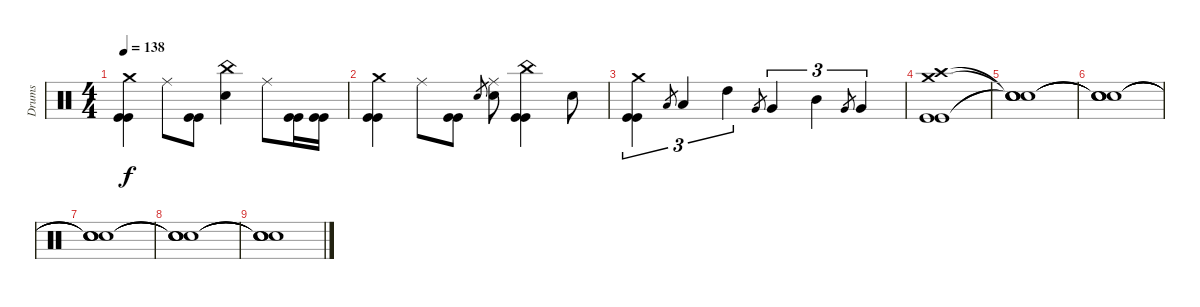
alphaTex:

\track ("Drums" "Drums") {instrument percussion}
\staff {score}
\articulation defaults
\ts (4 4)
\tempo 138
\clef neutral
\ks c
("Crash medium (hit)" "Kick (hit)" "Kick (hit)").4{dy f} "Ride (middle)".8 ("Kick (hit)" "Kick (hit)").8 ("China (hit)" "Electric Snare (hit)").4 "Ride (middle)".8 ("Kick (hit)" "Kick (hit)").16 ("Kick (hit)" "Kick (hit)").16 |
("Crash medium (hit)" "Kick (hit)" "Kick (hit)").4 "Ride (middle)".8 ("Kick (hit)" "Kick (hit)").8 "Electric Snare (hit)".8{gr} ("Ride (middle)" "Electric Snare (hit)").8 ("China (hit)" "Kick (hit)" "Kick (hit)").4 "Electric Snare (hit)".8 |
("Crash medium (hit)" "Kick (hit)" "Kick (hit)").4{tu (3 2)} "Low Tom (hit)".8{gr} "Low Tom (hit)".4{tu (3 2)} "High Tom (hit)".4{tu (3 2)} "Very Low Tom (hit)".8{gr} "Very Low Tom (hit)".4{tu (3 2)} "Mid Tom (hit)".4{tu (3 2)} "Very Low Tom (hit)".8{gr} "Very Low Tom (hit)".4{tu (3 2)} |
("Crash high (hit)" "Crash medium (hit)" "Kick (hit)" "Kick (hit)").1 |
("Snare (hit)"{t} "Snare (hit)"{t} "Snare (hit)"{t} "Snare (hit)"{t}).1 |
("Snare (hit)"{t} "Snare (hit)"{t} "Snare (hit)"{t} "Snare (hit)"{t}).1 |
("Snare (hit)"{t} "Snare (hit)"{t} "Snare (hit)"{t} "Snare (hit)"{t}).1 |
("Snare (hit)"{t} "Snare (hit)"{t} "Snare (hit)"{t} "Snare (hit)"{t}).1 |
("Snare (hit)"{t} "Snare (hit)"{t} "Snare (hit)"{t} "Snare (hit)"{t}).1
